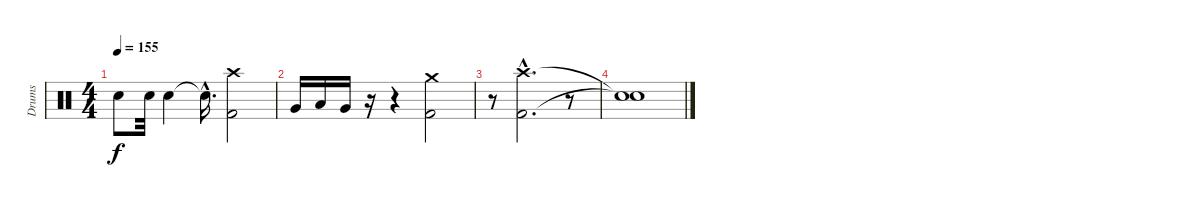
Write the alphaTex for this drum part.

\track ("Drums" "Drums") {instrument percussion}
\staff {score}
\articulation defaults
\ts (4 4)
\tempo 155
\clef neutral
\ks c "Snare (hit)"{t}.8{dy f} "Snare (hit) 2".32 "Snare (hit) 2".4 "Snare (hit)"{hac t}.16{d}
("Crash high (hit)" "Kick (hit) 2").2 |
"Very Low Tom (hit)".16 "Low Tom (hit)".16 "Very Low Tom (hit)".16 r.16 r.4 ("Crash medium (hit)" "Kick (hit) 2").2 |
r.8 ("Crash high (hit)"{hac} "Kick (hit) 2"{hac}).2{d} r.8 |
("Snare (hit)"{t} "Snare (hit)"{t}).1
